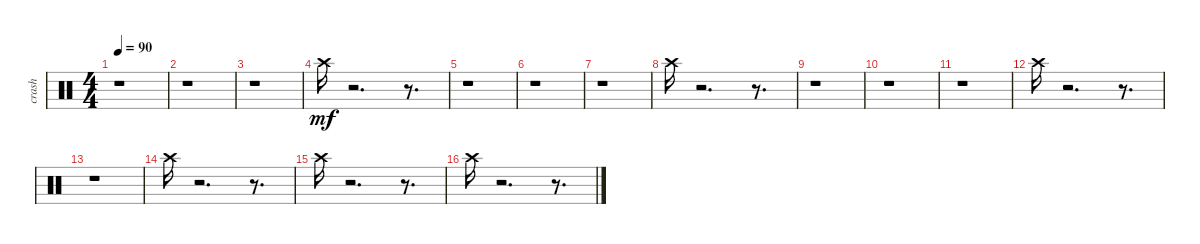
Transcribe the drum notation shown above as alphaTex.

\track ("crash" "crash") {instrument percussion}
\staff {score}
\articulation defaults
\ts (4 4)
\tempo 90
\clef neutral
\ks c
r.1{dy mf} |
r.1 |
r.1 |
"Crash high (hit)".16 r.2{d} r.8{d} |
r.1 |
r.1 |
r.1 |
"Crash high (hit)".16 r.2{d} r.8{d} |
r.1 |
r.1 |
r.1 |
"Crash high (hit)".16 r.2{d} r.8{d} |
r.1 |
"Crash high (hit)".16 r.2{d} r.8{d} |
"Crash high (hit)".16 r.2{d} r.8{d} |
"Crash high (hit)".16 r.2{d} r.8{d}
